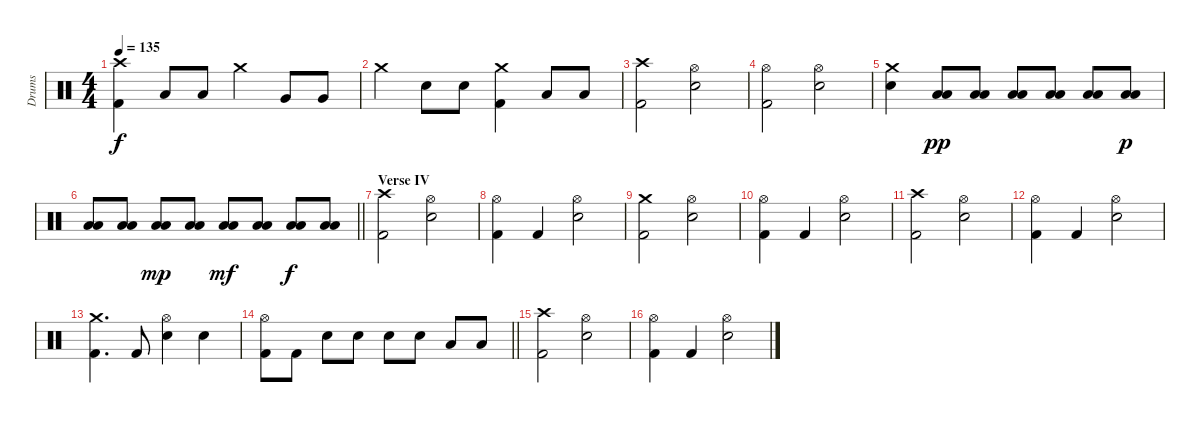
\track ("Drums" "Drums") {instrument percussion}
\staff {score}
\articulation defaults
\ts (4 4)
\tempo 135
\clef neutral
\ks c
("Crash high (hit)" "Kick (hit) 2").4{dy f} "Low Tom (hit)".8 "Low Tom (hit)".8 "Crash medium (hit)".4 "Very Low Tom (hit)".8 "Very Low Tom (hit)".8 |
"Crash medium (hit)".4 "Electric Snare (hit)".8 "Electric Snare (hit)".8 ("Crash medium (hit)" "Kick (hit) 2").4 "Low Tom (hit)".8 "Low Tom (hit)".8 |
("Crash high (hit)" "Kick (hit) 2").2 ("Hi-Hat (open)" "Electric Snare (hit)").2 |
("Hi-Hat (open)" "Kick (hit) 2").2 ("Hi-Hat (open)" "Electric Snare (hit)").2 |
("Crash medium (hit)" "Electric Snare (hit)").4 ("Low Tom (hit)" "Low Floor Tom (hit)").8{dy pp} ("Low Tom (hit)" "Low Floor Tom (hit)").8 ("Low Tom (hit)" "Low Floor Tom (hit)").8 ("Low Tom (hit)" "Low Floor Tom (hit)").8 ("Low Tom (hit)" "Low Floor Tom (hit)").8 ("Low Tom (hit)" "Low Floor Tom (hit)").8{dy p} |
\barLineRight lightlight
("Low Tom (hit)" "Low Floor Tom (hit)").8 ("Low Tom (hit)" "Low Floor Tom (hit)").8 ("Low Tom (hit)" "Low Floor Tom (hit)").8{dy mp} ("Low Tom (hit)" "Low Floor Tom (hit)").8 ("Low Tom (hit)" "Low Floor Tom (hit)").8{dy mf} ("Low Tom (hit)" "Low Floor Tom (hit)").8 ("Low Tom (hit)" "Low Floor Tom (hit)").8{dy f} ("Low Tom (hit)" "Low Floor Tom (hit)").8 |
\section ("" "Verse IV")
("Crash high (hit)" "Kick (hit) 2").2 ("Hi-Hat (open)" "Electric Snare (hit)").2 |
("Hi-Hat (open)" "Kick (hit) 2").4 "Kick (hit) 2".4 ("Hi-Hat (open)" "Electric Snare (hit)").2 |
("Crash medium (hit)" "Kick (hit) 2").2 ("Hi-Hat (open)" "Electric Snare (hit)").2 |
("Hi-Hat (open)" "Kick (hit) 2").4 "Kick (hit) 2".4 ("Hi-Hat (open)" "Electric Snare (hit)").2 |
("Crash high (hit)" "Kick (hit) 2").2 ("Hi-Hat (open)" "Electric Snare (hit)").2 |
("Hi-Hat (open)" "Kick (hit) 2").4 "Kick (hit) 2".4 ("Hi-Hat (open)" "Electric Snare (hit)").2 |
("Crash medium (hit)" "Kick (hit) 2").4{d} "Kick (hit) 2".8 ("Electric Snare (hit)" "Hi-Hat (open)").4 "Electric Snare (hit)".4 |
\barLineRight lightlight
("Hi-Hat (open)" "Kick (hit) 2").8 "Kick (hit) 2".8 "Electric Snare (hit)".8 "Electric Snare (hit)".8 "Electric Snare (hit)".8 "Electric Snare (hit)".8 "Low Tom (hit)".8 "Low Tom (hit)".8 |
("Crash high (hit)" "Kick (hit) 2").2 ("Hi-Hat (open)" "Electric Snare (hit)").2 |
("Hi-Hat (open)" "Kick (hit) 2").4 "Kick (hit) 2".4 ("Hi-Hat (open)" "Electric Snare (hit)").2
